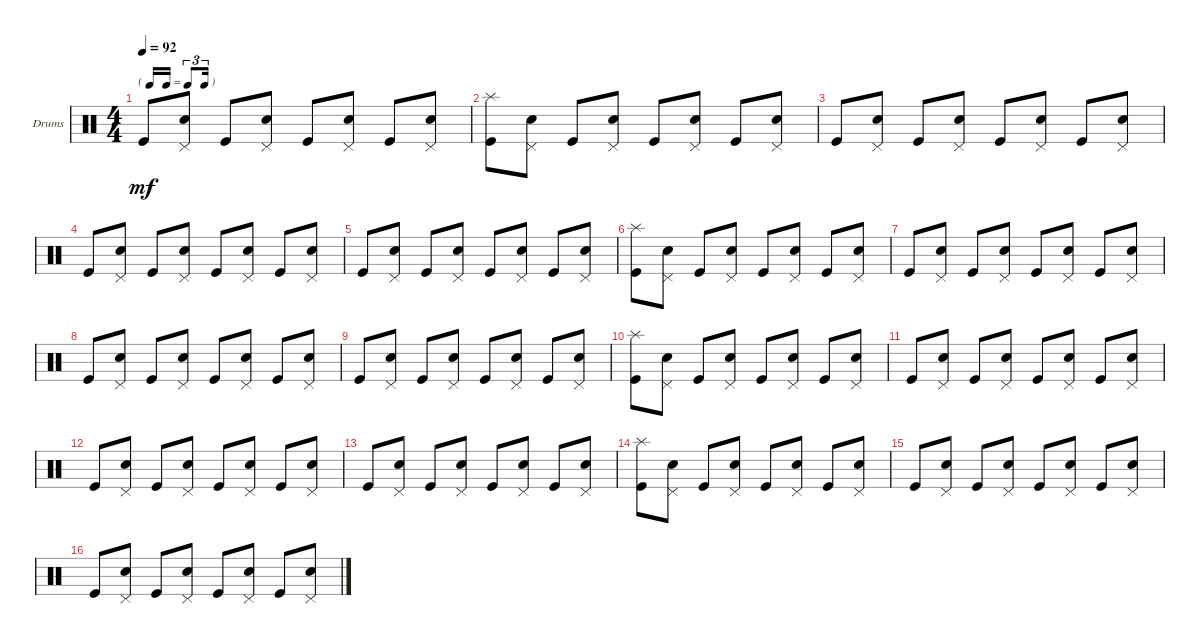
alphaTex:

\defaultSystemsLayout 4
\bracketExtendMode nobrackets
\firstSystemTrackNameOrientation horizontal
\otherSystemsTrackNameOrientation horizontal
\track ("Drumkit" "Drums") {instrument percussion}
\staff {score}
\articulation defaults
\ts (4 4)
\tf triplet16th
\tempo 92
\clef neutral
\ks c "Kick (hit)".8{dy mf}
("Snare (hit) 2" "Pedal Hi-Hat (hit)").8 "Kick (hit)".8 ("Snare (hit) 2" "Pedal Hi-Hat (hit)").8 "Kick (hit)".8 ("Snare (hit) 2" "Pedal Hi-Hat (hit)").8 "Kick (hit)".8 ("Snare (hit) 2" "Pedal Hi-Hat (hit)").8 |
("Splash (hit)" "Kick (hit)").8 ("Snare (hit) 2" "Pedal Hi-Hat (hit)").8 "Kick (hit)".8 ("Snare (hit) 2" "Pedal Hi-Hat (hit)").8 "Kick (hit)".8 ("Snare (hit) 2" "Pedal Hi-Hat (hit)").8 "Kick (hit)".8 ("Snare (hit) 2" "Pedal Hi-Hat (hit)").8 |
"Kick (hit)".8 ("Snare (hit) 2" "Pedal Hi-Hat (hit)").8 "Kick (hit)".8 ("Snare (hit) 2" "Pedal Hi-Hat (hit)").8 "Kick (hit)".8 ("Snare (hit) 2" "Pedal Hi-Hat (hit)").8 "Kick (hit)".8 ("Snare (hit) 2" "Pedal Hi-Hat (hit)").8 |
"Kick (hit)".8 ("Snare (hit) 2" "Pedal Hi-Hat (hit)").8 "Kick (hit)".8 ("Snare (hit) 2" "Pedal Hi-Hat (hit)").8 "Kick (hit)".8 ("Snare (hit) 2" "Pedal Hi-Hat (hit)").8 "Kick (hit)".8 ("Snare (hit) 2" "Pedal Hi-Hat (hit)").8 |
"Kick (hit)".8 ("Snare (hit) 2" "Pedal Hi-Hat (hit)").8 "Kick (hit)".8 ("Snare (hit) 2" "Pedal Hi-Hat (hit)").8 "Kick (hit)".8 ("Snare (hit) 2" "Pedal Hi-Hat (hit)").8 "Kick (hit)".8 ("Snare (hit) 2" "Pedal Hi-Hat (hit)").8 |
("Splash (hit)" "Kick (hit)").8 ("Snare (hit) 2" "Pedal Hi-Hat (hit)").8 "Kick (hit)".8 ("Snare (hit) 2" "Pedal Hi-Hat (hit)").8 "Kick (hit)".8 ("Snare (hit) 2" "Pedal Hi-Hat (hit)").8 "Kick (hit)".8 ("Snare (hit) 2" "Pedal Hi-Hat (hit)").8 |
"Kick (hit)".8 ("Snare (hit) 2" "Pedal Hi-Hat (hit)").8 "Kick (hit)".8 ("Snare (hit) 2" "Pedal Hi-Hat (hit)").8 "Kick (hit)".8 ("Snare (hit) 2" "Pedal Hi-Hat (hit)").8 "Kick (hit)".8 ("Snare (hit) 2" "Pedal Hi-Hat (hit)").8 |
"Kick (hit)".8 ("Snare (hit) 2" "Pedal Hi-Hat (hit)").8 "Kick (hit)".8 ("Snare (hit) 2" "Pedal Hi-Hat (hit)").8 "Kick (hit)".8 ("Snare (hit) 2" "Pedal Hi-Hat (hit)").8 "Kick (hit)".8 ("Snare (hit) 2" "Pedal Hi-Hat (hit)").8 |
"Kick (hit)".8 ("Snare (hit) 2" "Pedal Hi-Hat (hit)").8 "Kick (hit)".8 ("Snare (hit) 2" "Pedal Hi-Hat (hit)").8 "Kick (hit)".8 ("Snare (hit) 2" "Pedal Hi-Hat (hit)").8 "Kick (hit)".8 ("Snare (hit) 2" "Pedal Hi-Hat (hit)").8 |
("Splash (hit)" "Kick (hit)").8 ("Snare (hit) 2" "Pedal Hi-Hat (hit)").8 "Kick (hit)".8 ("Snare (hit) 2" "Pedal Hi-Hat (hit)").8 "Kick (hit)".8 ("Snare (hit) 2" "Pedal Hi-Hat (hit)").8 "Kick (hit)".8 ("Snare (hit) 2" "Pedal Hi-Hat (hit)").8 |
"Kick (hit)".8 ("Snare (hit) 2" "Pedal Hi-Hat (hit)").8 "Kick (hit)".8 ("Snare (hit) 2" "Pedal Hi-Hat (hit)").8 "Kick (hit)".8 ("Snare (hit) 2" "Pedal Hi-Hat (hit)").8 "Kick (hit)".8 ("Snare (hit) 2" "Pedal Hi-Hat (hit)").8 |
"Kick (hit)".8 ("Snare (hit) 2" "Pedal Hi-Hat (hit)").8 "Kick (hit)".8 ("Snare (hit) 2" "Pedal Hi-Hat (hit)").8 "Kick (hit)".8 ("Snare (hit) 2" "Pedal Hi-Hat (hit)").8 "Kick (hit)".8 ("Snare (hit) 2" "Pedal Hi-Hat (hit)").8 |
"Kick (hit)".8 ("Snare (hit) 2" "Pedal Hi-Hat (hit)").8 "Kick (hit)".8 ("Snare (hit) 2" "Pedal Hi-Hat (hit)").8 "Kick (hit)".8 ("Snare (hit) 2" "Pedal Hi-Hat (hit)").8 "Kick (hit)".8 ("Snare (hit) 2" "Pedal Hi-Hat (hit)").8 |
("Splash (hit)" "Kick (hit)").8 ("Snare (hit) 2" "Pedal Hi-Hat (hit)").8 "Kick (hit)".8 ("Snare (hit) 2" "Pedal Hi-Hat (hit)").8 "Kick (hit)".8 ("Snare (hit) 2" "Pedal Hi-Hat (hit)").8 "Kick (hit)".8 ("Snare (hit) 2" "Pedal Hi-Hat (hit)").8 |
"Kick (hit)".8 ("Snare (hit) 2" "Pedal Hi-Hat (hit)").8 "Kick (hit)".8 ("Snare (hit) 2" "Pedal Hi-Hat (hit)").8 "Kick (hit)".8 ("Snare (hit) 2" "Pedal Hi-Hat (hit)").8 "Kick (hit)".8 ("Snare (hit) 2" "Pedal Hi-Hat (hit)").8 |
"Kick (hit)".8 ("Snare (hit) 2" "Pedal Hi-Hat (hit)").8 "Kick (hit)".8 ("Snare (hit) 2" "Pedal Hi-Hat (hit)").8 "Kick (hit)".8 ("Snare (hit) 2" "Pedal Hi-Hat (hit)").8 "Kick (hit)".8 ("Snare (hit) 2" "Pedal Hi-Hat (hit)").8
